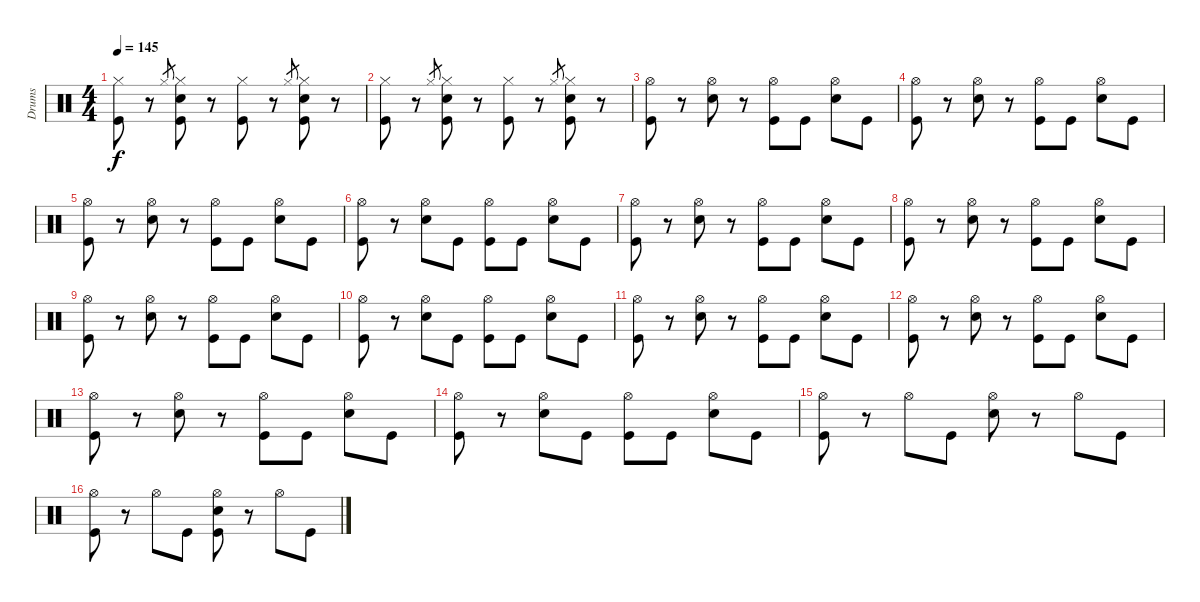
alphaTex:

\track ("Drums" "Drums") {instrument percussion}
\staff {score}
\articulation defaults
\ts (4 4)
\tempo 145
\clef neutral
\ks c
("Hi-Hat (closed)" "Kick (hit)").8{dy f} r.8 "Hi-Hat (closed)".8{gr} ("Hi-Hat (closed)" "Snare (hit) 2" "Kick (hit)").8 r.8 ("Hi-Hat (closed)" "Kick (hit)").8 r.8 "Hi-Hat (closed)".8{gr} ("Hi-Hat (closed)" "Snare (hit) 2" "Kick (hit)").8 r.8 |
("Hi-Hat (closed)" "Kick (hit)").8 r.8 "Hi-Hat (closed)".8{gr} ("Hi-Hat (closed)" "Snare (hit) 2" "Kick (hit)").8 r.8 ("Hi-Hat (closed)" "Kick (hit)").8 r.8 "Hi-Hat (closed)".8{gr} ("Hi-Hat (closed)" "Snare (hit) 2" "Kick (hit)").8 r.8 |
("Hi-Hat (open)" "Kick (hit)").8 r.8 ("Hi-Hat (open)" "Snare (hit) 2").8 r.8 ("Hi-Hat (open)" "Kick (hit)").8 "Kick (hit)".8 ("Hi-Hat (open)" "Snare (hit) 2").8 "Kick (hit)".8 |
("Hi-Hat (open)" "Kick (hit)").8 r.8 ("Hi-Hat (open)" "Snare (hit) 2").8 r.8 ("Hi-Hat (open)" "Kick (hit)").8 "Kick (hit)".8 ("Hi-Hat (open)" "Snare (hit) 2").8 "Kick (hit)".8 |
("Hi-Hat (open)" "Kick (hit)").8 r.8 ("Hi-Hat (open)" "Snare (hit) 2").8 r.8 ("Hi-Hat (open)" "Kick (hit)").8 "Kick (hit)".8 ("Hi-Hat (open)" "Snare (hit) 2").8 "Kick (hit)".8 |
("Hi-Hat (open)" "Kick (hit)").8 r.8 ("Hi-Hat (open)" "Snare (hit) 2").8 "Kick (hit)".8 ("Hi-Hat (open)" "Kick (hit)").8 "Kick (hit)".8 ("Hi-Hat (open)" "Snare (hit) 2").8 "Kick (hit)".8 |
("Hi-Hat (open)" "Kick (hit)").8 r.8 ("Hi-Hat (open)" "Snare (hit) 2").8 r.8 ("Hi-Hat (open)" "Kick (hit)").8 "Kick (hit)".8 ("Hi-Hat (open)" "Snare (hit) 2").8 "Kick (hit)".8 |
("Hi-Hat (open)" "Kick (hit)").8 r.8 ("Hi-Hat (open)" "Snare (hit) 2").8 r.8 ("Hi-Hat (open)" "Kick (hit)").8 "Kick (hit)".8 ("Hi-Hat (open)" "Snare (hit) 2").8 "Kick (hit)".8 |
("Hi-Hat (open)" "Kick (hit)").8 r.8 ("Hi-Hat (open)" "Snare (hit) 2").8 r.8 ("Hi-Hat (open)" "Kick (hit)").8 "Kick (hit)".8 ("Hi-Hat (open)" "Snare (hit) 2").8 "Kick (hit)".8 |
("Hi-Hat (open)" "Kick (hit)").8 r.8 ("Hi-Hat (open)" "Snare (hit) 2").8 "Kick (hit)".8 ("Hi-Hat (open)" "Kick (hit)").8 "Kick (hit)".8 ("Hi-Hat (open)" "Snare (hit) 2").8 "Kick (hit)".8 |
("Hi-Hat (open)" "Kick (hit)").8 r.8 ("Hi-Hat (open)" "Snare (hit) 2").8 r.8 ("Hi-Hat (open)" "Kick (hit)").8 "Kick (hit)".8 ("Hi-Hat (open)" "Snare (hit) 2").8 "Kick (hit)".8 |
("Hi-Hat (open)" "Kick (hit)").8 r.8 ("Hi-Hat (open)" "Snare (hit) 2").8 r.8 ("Hi-Hat (open)" "Kick (hit)").8 "Kick (hit)".8 ("Hi-Hat (open)" "Snare (hit) 2").8 "Kick (hit)".8 |
("Hi-Hat (open)" "Kick (hit)").8 r.8 ("Hi-Hat (open)" "Snare (hit) 2").8 r.8 ("Hi-Hat (open)" "Kick (hit)").8 "Kick (hit)".8 ("Hi-Hat (open)" "Snare (hit) 2").8 "Kick (hit)".8 |
("Hi-Hat (open)" "Kick (hit)").8 r.8 ("Hi-Hat (open)" "Snare (hit) 2").8 "Kick (hit)".8 ("Hi-Hat (open)" "Kick (hit)").8 "Kick (hit)".8 ("Hi-Hat (open)" "Snare (hit) 2").8 "Kick (hit)".8 |
("Hi-Hat (open)" "Kick (hit)").8 r.8 "Hi-Hat (open)".8 "Kick (hit)".8 ("Hi-Hat (open)" "Snare (hit) 2").8 r.8 "Hi-Hat (open)".8 "Kick (hit)".8 |
("Hi-Hat (open)" "Kick (hit)").8 r.8 "Hi-Hat (open)".8 "Kick (hit)".8 ("Hi-Hat (open)" "Snare (hit) 2" "Kick (hit)").8 r.8 "Hi-Hat (open)".8 "Kick (hit)".8
